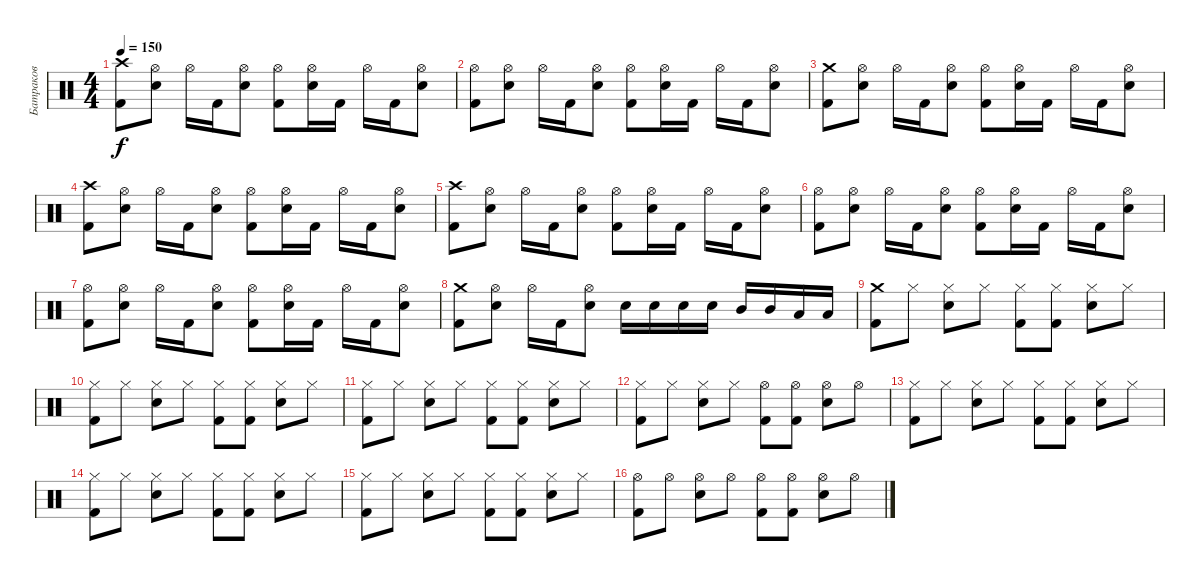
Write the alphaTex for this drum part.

\track ("Батраков" "Батраков") {instrument percussion}
\staff {score}
\articulation defaults
\ts (4 4)
\tempo 150
\clef neutral
\ks c
("Kick (hit) 2" "Crash high (hit)").8{dy f} ("Electric Snare (hit)" "Hi-Hat (open)").8 "Hi-Hat (open)".16 "Kick (hit) 2".16 ("Electric Snare (hit)" "Hi-Hat (open)").8 ("Kick (hit) 2" "Hi-Hat (open)").8 ("Electric Snare (hit)" "Hi-Hat (open)").16 "Kick (hit) 2".16 "Hi-Hat (open)".16 "Kick (hit) 2".16 ("Electric Snare (hit)" "Hi-Hat (open)").8 |
("Kick (hit) 2" "Hi-Hat (open)").8 ("Electric Snare (hit)" "Hi-Hat (open)").8 "Hi-Hat (open)".16 "Kick (hit) 2".16 ("Electric Snare (hit)" "Hi-Hat (open)").8 ("Kick (hit) 2" "Hi-Hat (open)").8 ("Electric Snare (hit)" "Hi-Hat (open)").16 "Kick (hit) 2".16 "Hi-Hat (open)".16 "Kick (hit) 2".16 ("Electric Snare (hit)" "Hi-Hat (open)").8 |
("Kick (hit) 2" "Crash medium (hit)").8 ("Electric Snare (hit)" "Hi-Hat (open)").8 "Hi-Hat (open)".16 "Kick (hit) 2".16 ("Electric Snare (hit)" "Hi-Hat (open)").8 ("Kick (hit) 2" "Hi-Hat (open)").8 ("Electric Snare (hit)" "Hi-Hat (open)").16 "Kick (hit) 2".16 "Hi-Hat (open)".16 "Kick (hit) 2".16 ("Electric Snare (hit)" "Hi-Hat (open)").8 |
("Kick (hit) 2" "Crash high (hit)").8 ("Electric Snare (hit)" "Hi-Hat (open)").8 "Hi-Hat (open)".16 "Kick (hit) 2".16 ("Electric Snare (hit)" "Hi-Hat (open)").8 ("Kick (hit) 2" "Hi-Hat (open)").8 ("Electric Snare (hit)" "Hi-Hat (open)").16 "Kick (hit) 2".16 "Hi-Hat (open)".16 "Kick (hit) 2".16 ("Electric Snare (hit)" "Hi-Hat (open)").8 |
("Kick (hit) 2" "Crash high (hit)").8 ("Electric Snare (hit)" "Hi-Hat (open)").8 "Hi-Hat (open)".16 "Kick (hit) 2".16 ("Electric Snare (hit)" "Hi-Hat (open)").8 ("Kick (hit) 2" "Hi-Hat (open)").8 ("Electric Snare (hit)" "Hi-Hat (open)").16 "Kick (hit) 2".16 "Hi-Hat (open)".16 "Kick (hit) 2".16 ("Electric Snare (hit)" "Hi-Hat (open)").8 |
("Kick (hit) 2" "Hi-Hat (open)").8 ("Electric Snare (hit)" "Hi-Hat (open)").8 "Hi-Hat (open)".16 "Kick (hit) 2".16 ("Electric Snare (hit)" "Hi-Hat (open)").8 ("Kick (hit) 2" "Hi-Hat (open)").8 ("Electric Snare (hit)" "Hi-Hat (open)").16 "Kick (hit) 2".16 "Hi-Hat (open)".16 "Kick (hit) 2".16 ("Electric Snare (hit)" "Hi-Hat (open)").8 |
("Kick (hit) 2" "Hi-Hat (open)").8 ("Electric Snare (hit)" "Hi-Hat (open)").8 "Hi-Hat (open)".16 "Kick (hit) 2".16 ("Electric Snare (hit)" "Hi-Hat (open)").8 ("Kick (hit) 2" "Hi-Hat (open)").8 ("Electric Snare (hit)" "Hi-Hat (open)").16 "Kick (hit) 2".16 "Hi-Hat (open)".16 "Kick (hit) 2".16 ("Electric Snare (hit)" "Hi-Hat (open)").8 |
("Kick (hit) 2" "Crash medium (hit)").8 ("Electric Snare (hit)" "Hi-Hat (open)").8 "Hi-Hat (open)".16 "Kick (hit) 2".16 ("Electric Snare (hit)" "Hi-Hat (open)").8 "Electric Snare (hit)".16 "Electric Snare (hit)".16 "Electric Snare (hit)".16 "Electric Snare (hit)".16 "Mid Tom (hit)".16 "Mid Tom (hit)".16 "Low Tom (hit)".16 "Low Tom (hit)".16 |
("Kick (hit) 2" "Crash medium (hit)").8 "Hi-Hat (closed)".8 ("Electric Snare (hit)" "Hi-Hat (closed)").8 "Hi-Hat (closed)".8 ("Kick (hit) 2" "Hi-Hat (closed)").8 ("Kick (hit) 2" "Hi-Hat (closed)").8 ("Electric Snare (hit)" "Hi-Hat (closed)").8 "Hi-Hat (closed)".8 |
("Kick (hit) 2" "Hi-Hat (closed)").8 "Hi-Hat (closed)".8 ("Electric Snare (hit)" "Hi-Hat (closed)").8 "Hi-Hat (closed)".8 ("Kick (hit) 2" "Hi-Hat (closed)").8 ("Kick (hit) 2" "Hi-Hat (closed)").8 ("Electric Snare (hit)" "Hi-Hat (closed)").8 "Hi-Hat (closed)".8 |
("Kick (hit) 2" "Hi-Hat (closed)").8 "Hi-Hat (closed)".8 ("Electric Snare (hit)" "Hi-Hat (closed)").8 "Hi-Hat (closed)".8 ("Kick (hit) 2" "Hi-Hat (closed)").8 ("Kick (hit) 2" "Hi-Hat (closed)").8 ("Electric Snare (hit)" "Hi-Hat (closed)").8 "Hi-Hat (closed)".8 |
("Kick (hit) 2" "Hi-Hat (closed)").8 "Hi-Hat (closed)".8 ("Electric Snare (hit)" "Hi-Hat (closed)").8 "Hi-Hat (closed)".8 ("Kick (hit) 2" "Hi-Hat (open)").8 ("Kick (hit) 2" "Hi-Hat (open)").8 ("Electric Snare (hit)" "Hi-Hat (open)").8 "Hi-Hat (open)".8 |
("Kick (hit) 2" "Hi-Hat (closed)").8 "Hi-Hat (closed)".8 ("Electric Snare (hit)" "Hi-Hat (closed)").8 "Hi-Hat (closed)".8 ("Kick (hit) 2" "Hi-Hat (closed)").8 ("Kick (hit) 2" "Hi-Hat (closed)").8 ("Electric Snare (hit)" "Hi-Hat (closed)").8 "Hi-Hat (closed)".8 |
("Kick (hit) 2" "Hi-Hat (closed)").8 "Hi-Hat (closed)".8 ("Electric Snare (hit)" "Hi-Hat (closed)").8 "Hi-Hat (closed)".8 ("Kick (hit) 2" "Hi-Hat (closed)").8 ("Kick (hit) 2" "Hi-Hat (closed)").8 ("Electric Snare (hit)" "Hi-Hat (closed)").8 "Hi-Hat (closed)".8 |
("Kick (hit) 2" "Hi-Hat (closed)").8 "Hi-Hat (closed)".8 ("Electric Snare (hit)" "Hi-Hat (closed)").8 "Hi-Hat (closed)".8 ("Kick (hit) 2" "Hi-Hat (closed)").8 ("Kick (hit) 2" "Hi-Hat (closed)").8 ("Electric Snare (hit)" "Hi-Hat (closed)").8 "Hi-Hat (closed)".8 |
("Kick (hit) 2" "Hi-Hat (open)").8 "Hi-Hat (open)".8 ("Electric Snare (hit)" "Hi-Hat (open)").8 "Hi-Hat (open)".8 ("Kick (hit) 2" "Hi-Hat (open)").8 ("Kick (hit) 2" "Hi-Hat (open)").8 ("Electric Snare (hit)" "Hi-Hat (open)").8 "Hi-Hat (open)".8
